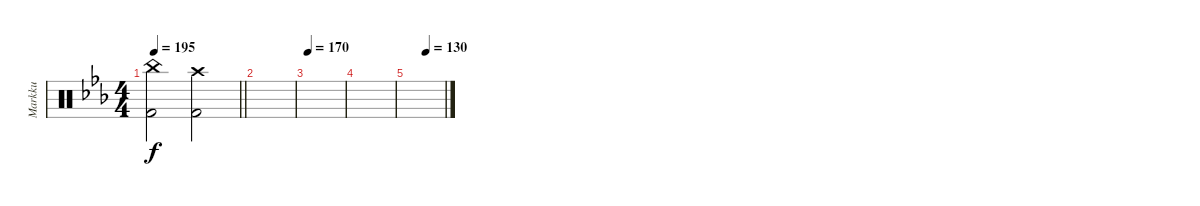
\track ("Markku" "Markku") {instrument percussion}
\staff {score}
\articulation defaults
\ts (4 4)
\tempo 195
\clef neutral
\barLineRight lightlight
\ks cminor
("Kick (hit) 2" "China (hit)").2{dy f} ("Kick (hit) 2" "Crash high (hit)").2 |
|
\tempo 170
|
|
\tempo (130 0.5)
